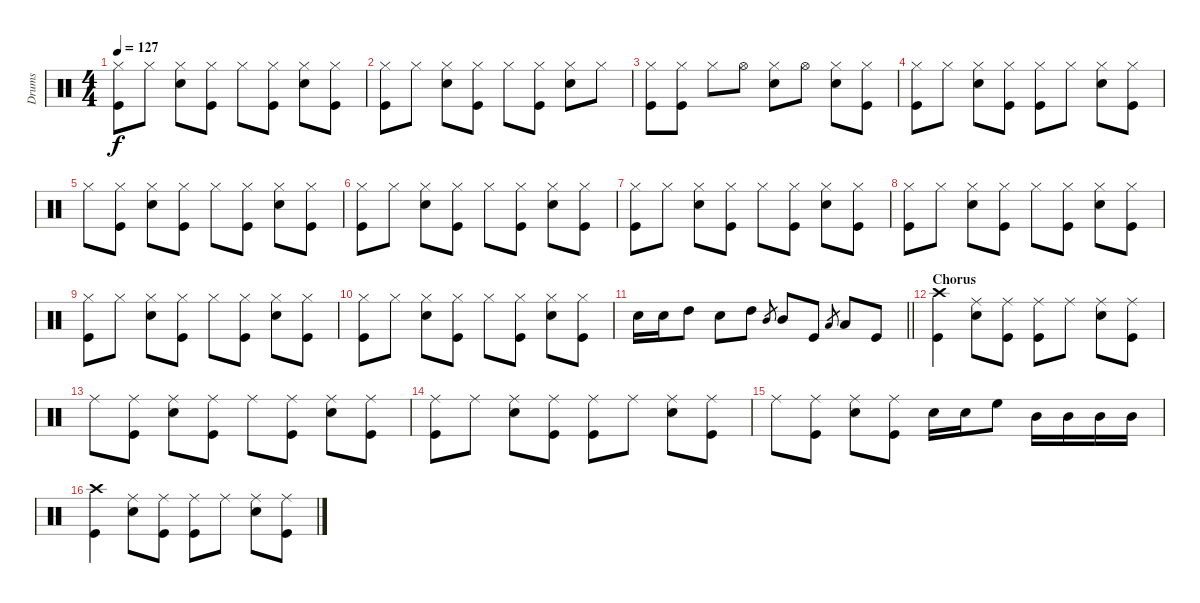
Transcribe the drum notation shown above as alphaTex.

\track ("Drums" "Drums") {instrument percussion}
\staff {score}
\articulation defaults
\ts (4 4)
\tempo 127
\clef neutral
\ks c
("Kick (hit)" "Hi-Hat (closed)").8{dy f} "Hi-Hat (closed)".8 ("Snare (hit) 2" "Hi-Hat (closed)").8 ("Kick (hit)" "Hi-Hat (closed)").8 "Hi-Hat (closed)".8 ("Kick (hit)" "Hi-Hat (closed)").8 ("Snare (hit) 2" "Hi-Hat (closed)").8 ("Kick (hit)" "Hi-Hat (closed)").8 |
("Hi-Hat (closed)" "Kick (hit)").8 "Hi-Hat (closed)".8 ("Hi-Hat (closed)" "Snare (hit) 2").8 ("Hi-Hat (closed)" "Kick (hit)").8 "Hi-Hat (closed)".8 ("Hi-Hat (closed)" "Kick (hit)").8 ("Hi-Hat (closed)" "Snare (hit) 2").8 "Hi-Hat (closed)".8 |
("Kick (hit)" "Hi-Hat (closed)").8 ("Kick (hit)" "Hi-Hat (closed)").8 "Hi-Hat (closed)".8 "Hi-Hat (open)".8 ("Snare (hit) 2" "Hi-Hat (closed)").8 "Hi-Hat (open)".8 ("Snare (hit) 2" "Hi-Hat (closed)").8 ("Kick (hit)" "Hi-Hat (closed)").8 |
("Hi-Hat (closed)" "Kick (hit)").8 "Hi-Hat (closed)".8 ("Hi-Hat (closed)" "Snare (hit) 2").8 ("Hi-Hat (closed)" "Kick (hit)").8 ("Hi-Hat (closed)" "Kick (hit)").8 "Hi-Hat (closed)".8 ("Hi-Hat (closed)" "Snare (hit) 2").8 ("Hi-Hat (closed)" "Kick (hit)").8 |
"Hi-Hat (closed)".8 ("Kick (hit)" "Hi-Hat (closed)").8 ("Snare (hit) 2" "Hi-Hat (closed)").8 ("Kick (hit)" "Hi-Hat (closed)").8 "Hi-Hat (closed)".8 ("Kick (hit)" "Hi-Hat (closed)").8 ("Snare (hit) 2" "Hi-Hat (closed)").8 ("Kick (hit)" "Hi-Hat (closed)").8 |
("Hi-Hat (closed)" "Kick (hit)").8 "Hi-Hat (closed)".8 ("Hi-Hat (closed)" "Snare (hit) 2").8 ("Hi-Hat (closed)" "Kick (hit)").8 "Hi-Hat (closed)".8 ("Hi-Hat (closed)" "Kick (hit)").8 ("Hi-Hat (closed)" "Snare (hit) 2").8 ("Hi-Hat (closed)" "Kick (hit)").8 |
("Kick (hit)" "Hi-Hat (closed)").8 "Hi-Hat (closed)".8 ("Snare (hit) 2" "Hi-Hat (closed)").8 ("Kick (hit)" "Hi-Hat (closed)").8 "Hi-Hat (closed)".8 ("Kick (hit)" "Hi-Hat (closed)").8 ("Snare (hit) 2" "Hi-Hat (closed)").8 ("Kick (hit)" "Hi-Hat (closed)").8 |
("Hi-Hat (closed)" "Kick (hit)").8 "Hi-Hat (closed)".8 ("Hi-Hat (closed)" "Snare (hit) 2").8 ("Hi-Hat (closed)" "Kick (hit)").8 "Hi-Hat (closed)".8 ("Hi-Hat (closed)" "Kick (hit)").8 ("Hi-Hat (closed)" "Snare (hit) 2").8 ("Hi-Hat (closed)" "Kick (hit)").8 |
("Hi-Hat (closed)" "Kick (hit)").8 "Hi-Hat (closed)".8 ("Hi-Hat (closed)" "Snare (hit) 2").8 ("Hi-Hat (closed)" "Kick (hit)").8 "Hi-Hat (closed)".8 ("Hi-Hat (closed)" "Kick (hit)").8 ("Hi-Hat (closed)" "Snare (hit) 2").8 ("Hi-Hat (closed)" "Kick (hit)").8 |
("Kick (hit)" "Hi-Hat (closed)").8 "Hi-Hat (closed)".8 ("Snare (hit) 2" "Hi-Hat (closed)").8 ("Kick (hit)" "Hi-Hat (closed)").8 "Hi-Hat (closed)".8 ("Kick (hit)" "Hi-Hat (closed)").8 ("Snare (hit) 2" "Hi-Hat (closed)").8 ("Kick (hit)" "Hi-Hat (closed)").8 |
\barLineRight lightlight "Snare (hit) 2".16 "Snare (hit) 2".16 "High Tom (hit)".8 "Snare (hit) 2".8 "High Tom (hit)".8 "Mid Tom (hit)".8{gr} "Mid Tom (hit)".8 "Kick (hit)".8 "Low Tom (hit)".8{gr} "Low Tom (hit)".8 "Kick (hit)".8
|
\section ("" "Chorus")
("Crash high (hit)" "Kick (hit)").4 ("Ride (middle)" "Snare (hit) 2").8 ("Ride (middle)" "Kick (hit)").8 ("Ride (middle)" "Kick (hit)").8 "Ride (middle)".8 ("Ride (middle)" "Snare (hit) 2").8 ("Ride (middle)" "Kick (hit)").8 |
"Ride (middle)".8 ("Kick (hit)" "Ride (middle)").8 ("Snare (hit) 2" "Ride (middle)").8 ("Kick (hit)" "Ride (middle)").8 "Ride (middle)".8 ("Kick (hit)" "Ride (middle)").8 ("Snare (hit) 2" "Ride (middle)").8 ("Kick (hit)" "Ride (middle)").8 |
("Ride (middle)" "Kick (hit)").8 "Ride (middle)".8 ("Ride (middle)" "Snare (hit) 2").8 ("Ride (middle)" "Kick (hit)").8 ("Ride (middle)" "Kick (hit)").8 "Ride (middle)".8 ("Ride (middle)" "Snare (hit) 2").8 ("Ride (middle)" "Kick (hit)").8 |
"Ride (middle)".8 ("Kick (hit)" "Ride (middle)").8 ("Snare (hit) 2" "Ride (middle)").8 ("Kick (hit)" "Ride (middle)").8 "Snare (hit) 2".16 "Snare (hit) 2".16 "High Floor Tom (hit)".8 "Mid Tom (hit)".16 "Mid Tom (hit)".16 "Mid Tom (hit)".16 "Mid Tom (hit)".16 |
("Crash high (hit)" "Kick (hit)").4 ("Ride (middle)" "Snare (hit) 2").8 ("Ride (middle)" "Kick (hit)").8 ("Ride (middle)" "Kick (hit)").8 "Ride (middle)".8 ("Ride (middle)" "Snare (hit) 2").8 ("Ride (middle)" "Kick (hit)").8
